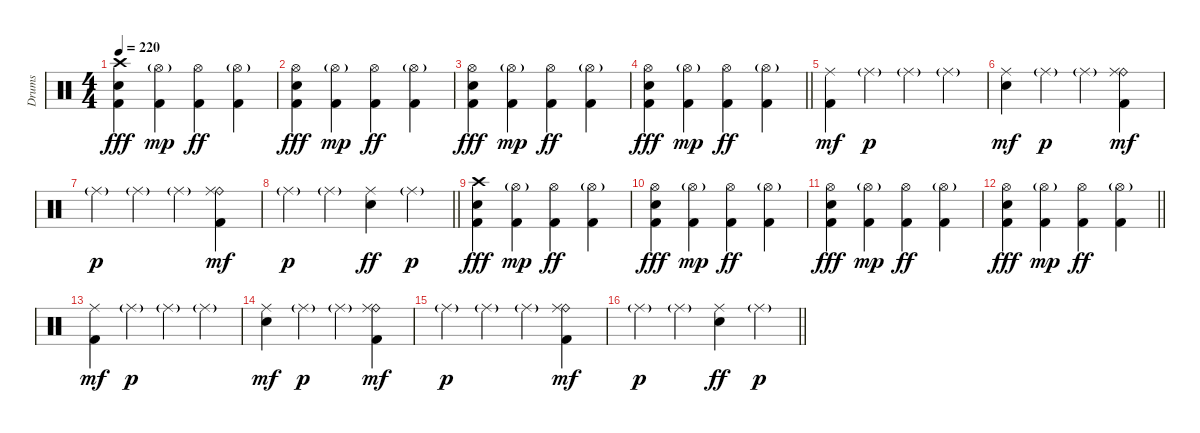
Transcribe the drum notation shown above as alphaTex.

\track ("Drums" "Drums") {instrument percussion}
\staff {score}
\articulation defaults
\ts (4 4)
\tempo 220
\clef neutral
\ks c
("Crash high (hit)" "Snare (hit) 2" "Kick (hit) 2").4{dy fff} ("Hi-Hat (open)"{g} "Kick (hit) 2").4{dy mp} ("Hi-Hat (open)" "Kick (hit) 2").4{dy ff} ("Hi-Hat (open)"{g} "Kick (hit) 2").4 |
("Hi-Hat (open)" "Snare (hit) 2" "Kick (hit) 2").4{dy fff} ("Hi-Hat (open)"{g} "Kick (hit) 2").4{dy mp} ("Hi-Hat (open)" "Kick (hit) 2").4{dy ff} ("Hi-Hat (open)"{g} "Kick (hit) 2").4 |
("Hi-Hat (open)" "Snare (hit) 2" "Kick (hit) 2").4{dy fff} ("Hi-Hat (open)"{g} "Kick (hit) 2").4{dy mp} ("Hi-Hat (open)" "Kick (hit) 2").4{dy ff} ("Hi-Hat (open)"{g} "Kick (hit) 2").4 |
\barLineRight lightlight
("Hi-Hat (open)" "Snare (hit) 2" "Kick (hit) 2").4{dy fff} ("Hi-Hat (open)"{g} "Kick (hit) 2").4{dy mp} ("Hi-Hat (open)" "Kick (hit) 2").4{dy ff} ("Hi-Hat (open)"{g} "Kick (hit) 2").4 |
("Ride (middle)" "Kick (hit) 2").4{dy mf} "Ride (middle)"{g}.4{dy p} "Ride (middle)"{g}.4 "Ride (middle)"{g}.4 |
("Ride (middle)" "Snare (hit) 2").4{dy mf} "Ride (middle)"{g}.4{dy p} "Ride (middle)"{g}.4 ("Ride (bell)" "Ride (middle)" "Kick (hit) 2").4{dy mf} |
"Ride (middle)"{g}.4{dy p} "Ride (middle)"{g}.4 "Ride (middle)"{g}.4 ("Ride (bell)" "Ride (middle)" "Kick (hit) 2").4{dy mf} |
\barLineRight lightlight "Ride (middle)"{g}.4{dy p} "Ride (middle)"{g}.4
("Ride (middle)" "Snare (hit) 2").4{dy ff} "Ride (middle)"{g}.4{dy p} |
("Crash high (hit)" "Snare (hit) 2" "Kick (hit) 2").4{dy fff} ("Hi-Hat (open)"{g} "Kick (hit) 2").4{dy mp} ("Hi-Hat (open)" "Kick (hit) 2").4{dy ff} ("Hi-Hat (open)"{g} "Kick (hit) 2").4 |
("Hi-Hat (open)" "Snare (hit) 2" "Kick (hit) 2").4{dy fff} ("Hi-Hat (open)"{g} "Kick (hit) 2").4{dy mp} ("Hi-Hat (open)" "Kick (hit) 2").4{dy ff} ("Hi-Hat (open)"{g} "Kick (hit) 2").4 |
("Hi-Hat (open)" "Snare (hit) 2" "Kick (hit) 2").4{dy fff} ("Hi-Hat (open)"{g} "Kick (hit) 2").4{dy mp} ("Hi-Hat (open)" "Kick (hit) 2").4{dy ff} ("Hi-Hat (open)"{g} "Kick (hit) 2").4 |
\barLineRight lightlight
("Hi-Hat (open)" "Snare (hit) 2" "Kick (hit) 2").4{dy fff} ("Hi-Hat (open)"{g} "Kick (hit) 2").4{dy mp} ("Hi-Hat (open)" "Kick (hit) 2").4{dy ff} ("Hi-Hat (open)"{g} "Kick (hit) 2").4 |
("Ride (middle)" "Kick (hit) 2").4{dy mf} "Ride (middle)"{g}.4{dy p} "Ride (middle)"{g}.4 "Ride (middle)"{g}.4 |
("Ride (middle)" "Snare (hit) 2").4{dy mf} "Ride (middle)"{g}.4{dy p} "Ride (middle)"{g}.4 ("Ride (bell)" "Ride (middle)" "Kick (hit) 2").4{dy mf} |
"Ride (middle)"{g}.4{dy p} "Ride (middle)"{g}.4 "Ride (middle)"{g}.4 ("Ride (bell)" "Ride (middle)" "Kick (hit) 2").4{dy mf} |
\barLineRight lightlight "Ride (middle)"{g}.4{dy p} "Ride (middle)"{g}.4
("Ride (middle)" "Snare (hit) 2").4{dy ff} "Ride (middle)"{g}.4{dy p}
